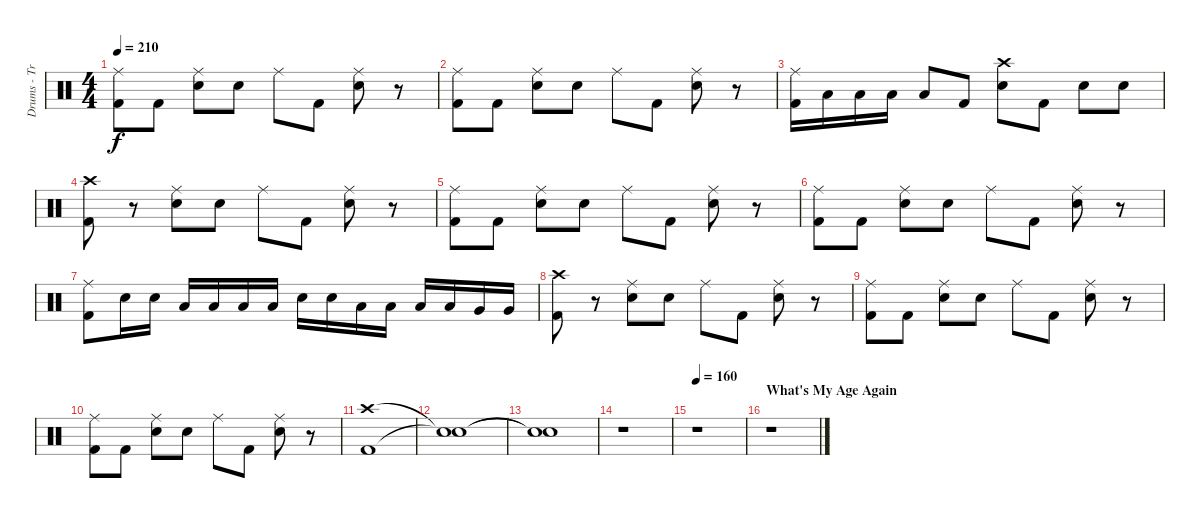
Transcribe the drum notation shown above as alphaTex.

\track ("Drums - Travis Barker" "Drums - Tr") {instrument percussion}
\staff {score}
\articulation defaults
\ts (4 4)
\tempo 210
\clef neutral
\ks c
("Ride (middle)" "Kick (hit) 2").8{dy f} "Kick (hit) 2".8 ("Ride (middle)" "Electric Snare (hit)").8 "Electric Snare (hit)".8 "Ride (middle)".8 "Kick (hit) 2".8 ("Ride (middle)" "Electric Snare (hit)").8 r.8 |
("Ride (middle)" "Kick (hit) 2").8 "Kick (hit) 2".8 ("Ride (middle)" "Electric Snare (hit)").8 "Electric Snare (hit)".8 "Ride (middle)".8 "Kick (hit) 2".8 ("Ride (middle)" "Electric Snare (hit)").8 r.8 |
("Ride (middle)" "Kick (hit) 2").16 "Low Tom (hit)".16 "Low Tom (hit)".16 "Low Tom (hit)".16 "Low Tom (hit)".8 "Kick (hit) 2".8 ("Crash high (hit)" "Electric Snare (hit)").8 "Kick (hit) 2".8 "Electric Snare (hit)".8 "Electric Snare (hit)".8 |
("Crash high (hit)" "Kick (hit) 2").8 r.8 ("Ride (middle)" "Electric Snare (hit)").8 "Electric Snare (hit)".8 "Ride (middle)".8 "Kick (hit) 2".8 ("Ride (middle)" "Electric Snare (hit)").8 r.8 |
("Ride (middle)" "Kick (hit) 2").8 "Kick (hit) 2".8 ("Ride (middle)" "Electric Snare (hit)").8 "Electric Snare (hit)".8 "Ride (middle)".8 "Kick (hit) 2".8 ("Ride (middle)" "Electric Snare (hit)").8 r.8 |
("Ride (middle)" "Kick (hit) 2").8 "Kick (hit) 2".8 ("Ride (middle)" "Electric Snare (hit)").8 "Electric Snare (hit)".8 "Ride (middle)".8 "Kick (hit) 2".8 ("Ride (middle)" "Electric Snare (hit)").8 r.8 |
("Ride (middle)" "Kick (hit) 2").8 "Electric Snare (hit)".16 "Electric Snare (hit)".16 "Low Tom (hit)".16 "Low Tom (hit)".16 "Low Tom (hit)".16 "Low Tom (hit)".16 "Electric Snare (hit)".16 "Electric Snare (hit)".16 "Low Tom (hit)".16 "Low Tom (hit)".16 "Low Tom (hit)".16 "Low Tom (hit)".16 "Very Low Tom (hit)".16 "Very Low Tom (hit)".16 |
("Crash high (hit)" "Kick (hit) 2").8 r.8 ("Ride (middle)" "Electric Snare (hit)").8 "Electric Snare (hit)".8 "Ride (middle)".8 "Kick (hit) 2".8 ("Ride (middle)" "Electric Snare (hit)").8 r.8 |
("Ride (middle)" "Kick (hit) 2").8 "Kick (hit) 2".8 ("Ride (middle)" "Electric Snare (hit)").8 "Electric Snare (hit)".8 "Ride (middle)".8 "Kick (hit) 2".8 ("Ride (middle)" "Electric Snare (hit)").8 r.8 |
("Ride (middle)" "Kick (hit) 2").8 "Kick (hit) 2".8 ("Ride (middle)" "Electric Snare (hit)").8 "Electric Snare (hit)".8 "Ride (middle)".8 "Kick (hit) 2".8 ("Ride (middle)" "Electric Snare (hit)").8 r.8 |
("Crash high (hit)" "Kick (hit) 2").1 |
("Snare (hit)"{t} "Snare (hit)"{t}).1 |
("Snare (hit)"{t} "Snare (hit)"{t}).1 |
r.1 |
\tempo 160
r.1 |
\section ("" "What's My Age Again")
r.1
